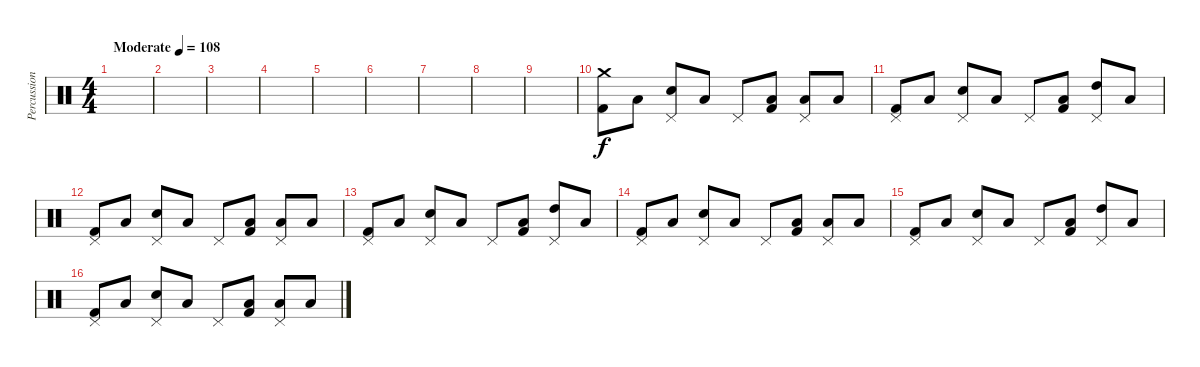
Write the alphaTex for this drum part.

\track ("Percussion" "Percussion") {instrument percussion}
\staff {score}
\articulation defaults
\ts (4 4)
\tempo (108 "Moderate")
\clef neutral
\ks c
|
|
|
|
|
|
|
|
|
("Crash medium (hit)" "Kick (hit) 2").8 "Low Tom (hit)".8 ("Pedal Hi-Hat (hit)" "Snare (hit) 2").8 "Low Tom (hit)".8 "Pedal Hi-Hat (hit)".8 ("Low Tom (hit)" "Kick (hit) 2").8 ("Pedal Hi-Hat (hit)" "Low Floor Tom (hit)").8 "Low Tom (hit)".8 |
("Pedal Hi-Hat (hit)" "Kick (hit) 2").8 "Low Tom (hit)".8 ("Pedal Hi-Hat (hit)" "Snare (hit) 2").8 "Low Tom (hit)".8 "Pedal Hi-Hat (hit)".8 ("Low Tom (hit)" "Kick (hit) 2").8 ("Pedal Hi-Hat (hit)" "High Tom (hit)").8 "Low Tom (hit)".8 |
("Pedal Hi-Hat (hit)" "Kick (hit) 2").8 "Low Tom (hit)".8 ("Pedal Hi-Hat (hit)" "Snare (hit) 2").8 "Low Tom (hit)".8 "Pedal Hi-Hat (hit)".8 ("Low Tom (hit)" "Kick (hit) 2").8 ("Pedal Hi-Hat (hit)" "Low Floor Tom (hit)").8 "Low Tom (hit)".8 |
("Pedal Hi-Hat (hit)" "Kick (hit) 2").8 "Low Tom (hit)".8 ("Pedal Hi-Hat (hit)" "Snare (hit) 2").8 "Low Tom (hit)".8 "Pedal Hi-Hat (hit)".8 ("Low Tom (hit)" "Kick (hit) 2").8 ("Pedal Hi-Hat (hit)" "High Tom (hit)").8 "Low Tom (hit)".8 |
("Pedal Hi-Hat (hit)" "Kick (hit) 2").8 "Low Tom (hit)".8 ("Pedal Hi-Hat (hit)" "Snare (hit) 2").8 "Low Tom (hit)".8 "Pedal Hi-Hat (hit)".8 ("Low Tom (hit)" "Kick (hit) 2").8 ("Pedal Hi-Hat (hit)" "Low Floor Tom (hit)").8 "Low Tom (hit)".8 |
("Pedal Hi-Hat (hit)" "Kick (hit) 2").8 "Low Tom (hit)".8 ("Pedal Hi-Hat (hit)" "Snare (hit) 2").8 "Low Tom (hit)".8 "Pedal Hi-Hat (hit)".8 ("Low Tom (hit)" "Kick (hit) 2").8 ("Pedal Hi-Hat (hit)" "High Tom (hit)").8 "Low Tom (hit)".8 |
("Pedal Hi-Hat (hit)" "Kick (hit) 2").8 "Low Tom (hit)".8 ("Pedal Hi-Hat (hit)" "Snare (hit) 2").8 "Low Tom (hit)".8 "Pedal Hi-Hat (hit)".8 ("Low Tom (hit)" "Kick (hit) 2").8 ("Pedal Hi-Hat (hit)" "Low Floor Tom (hit)").8 "Low Tom (hit)".8
